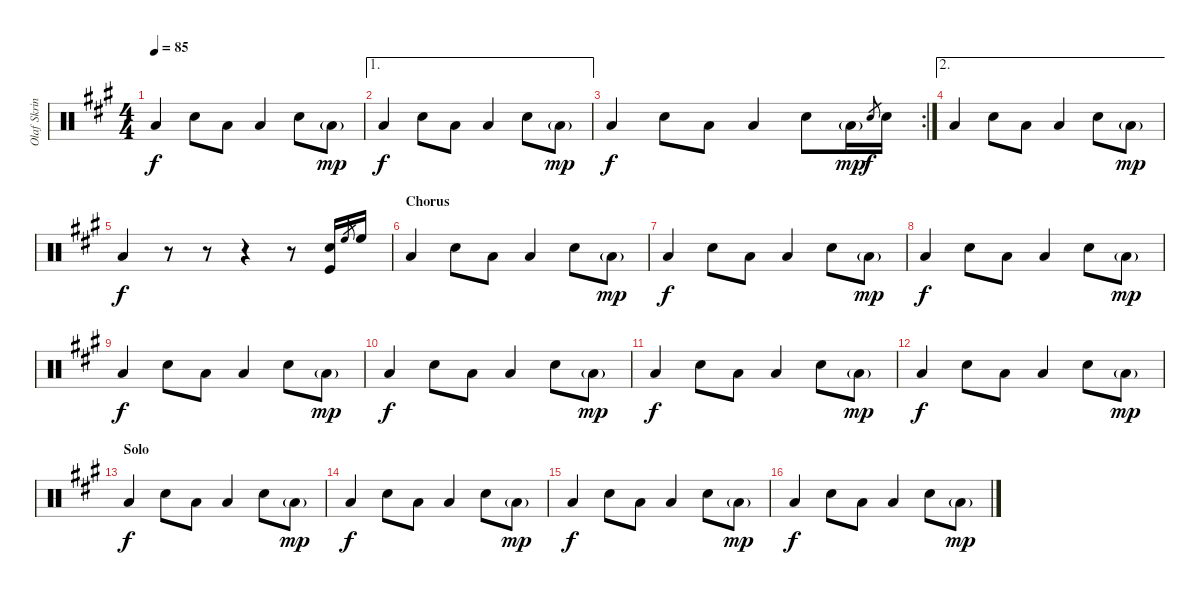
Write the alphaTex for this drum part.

\track ("Olaf Skrinde (Drums)" "Olaf Skrin") {instrument percussion}
\staff {score}
\articulation defaults
\ts (4 4)
\tempo 85
\clef neutral
\ks a "Low Floor Tom (hit)".4{dy f} "Snare (hit) 2".8 "Low Floor Tom (hit)".8 "Low Floor Tom (hit)".4 "Snare (hit) 2".8 "Low Floor Tom (hit)"{g}.8{dy mp}
|
\ae 1 "Low Floor Tom (hit)".4{dy f} "Snare (hit) 2".8 "Low Floor Tom (hit)".8 "Low Floor Tom (hit)".4 "Snare (hit) 2".8 "Low Floor Tom (hit)"{g}.8{dy mp}
|
\rc 2 "Low Floor Tom (hit)".4{dy f} "Snare (hit) 2".8 "Low Floor Tom (hit)".8 "Low Floor Tom (hit)".4 "Snare (hit) 2".8 "Low Floor Tom (hit)"{g}.16{dy mp} "Snare (hit) 2".8{gr dy f} "Snare (hit) 2".16
|
\ae 2 "Low Floor Tom (hit)".4 "Snare (hit) 2".8 "Low Floor Tom (hit)".8 "Low Floor Tom (hit)".4 "Snare (hit) 2".8 "Low Floor Tom (hit)"{g}.8{dy mp}
|
"Low Floor Tom (hit)".4{dy f} r.8 r.8 r.4 r.8 ("Electric Snare (hit)" "Kick (hit)").16 "High Floor Tom (hit)".8{gr} "High Floor Tom (hit)".16 |
\section ("" "Chorus")
"Low Floor Tom (hit)".4 "Snare (hit) 2".8 "Low Floor Tom (hit)".8 "Low Floor Tom (hit)".4 "Snare (hit) 2".8 "Low Floor Tom (hit)"{g}.8{dy mp} |
"Low Floor Tom (hit)".4{dy f} "Snare (hit) 2".8 "Low Floor Tom (hit)".8 "Low Floor Tom (hit)".4 "Snare (hit) 2".8 "Low Floor Tom (hit)"{g}.8{dy mp} |
"Low Floor Tom (hit)".4{dy f} "Snare (hit) 2".8 "Low Floor Tom (hit)".8 "Low Floor Tom (hit)".4 "Snare (hit) 2".8 "Low Floor Tom (hit)"{g}.8{dy mp} |
"Low Floor Tom (hit)".4{dy f} "Snare (hit) 2".8 "Low Floor Tom (hit)".8 "Low Floor Tom (hit)".4 "Snare (hit) 2".8 "Low Floor Tom (hit)"{g}.8{dy mp} |
"Low Floor Tom (hit)".4{dy f} "Snare (hit) 2".8 "Low Floor Tom (hit)".8 "Low Floor Tom (hit)".4 "Snare (hit) 2".8 "Low Floor Tom (hit)"{g}.8{dy mp} |
"Low Floor Tom (hit)".4{dy f} "Snare (hit) 2".8 "Low Floor Tom (hit)".8 "Low Floor Tom (hit)".4 "Snare (hit) 2".8 "Low Floor Tom (hit)"{g}.8{dy mp} |
"Low Floor Tom (hit)".4{dy f} "Snare (hit) 2".8 "Low Floor Tom (hit)".8 "Low Floor Tom (hit)".4 "Snare (hit) 2".8 "Low Floor Tom (hit)"{g}.8{dy mp} |
\section ("" "Solo")
"Low Floor Tom (hit)".4{dy f} "Snare (hit) 2".8 "Low Floor Tom (hit)".8 "Low Floor Tom (hit)".4 "Snare (hit) 2".8 "Low Floor Tom (hit)"{g}.8{dy mp} |
"Low Floor Tom (hit)".4{dy f} "Snare (hit) 2".8 "Low Floor Tom (hit)".8 "Low Floor Tom (hit)".4 "Snare (hit) 2".8 "Low Floor Tom (hit)"{g}.8{dy mp} |
"Low Floor Tom (hit)".4{dy f} "Snare (hit) 2".8 "Low Floor Tom (hit)".8 "Low Floor Tom (hit)".4 "Snare (hit) 2".8 "Low Floor Tom (hit)"{g}.8{dy mp} |
"Low Floor Tom (hit)".4{dy f} "Snare (hit) 2".8 "Low Floor Tom (hit)".8 "Low Floor Tom (hit)".4 "Snare (hit) 2".8 "Low Floor Tom (hit)"{g}.8{dy mp}
